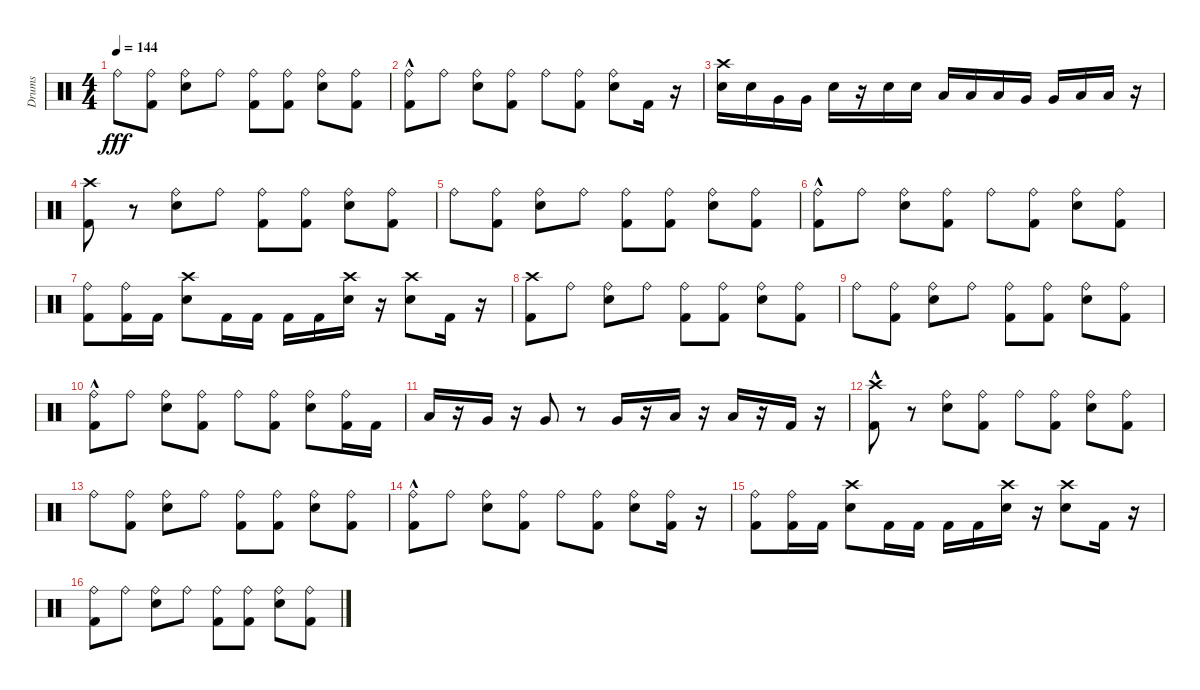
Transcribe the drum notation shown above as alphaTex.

\track ("Drums" "Drums") {instrument percussion}
\staff {score}
\articulation defaults
\ts (4 4)
\tempo 144
\clef neutral
\ks c "Ride (bell)".8{dy fff}
("Ride (bell)" "Kick (hit) 2").8 ("Ride (bell)" "Snare (hit) 2").8 "Ride (bell)".8 ("Ride (bell)" "Kick (hit) 2").8 ("Ride (bell)" "Kick (hit) 2").8 ("Ride (bell)" "Snare (hit) 2").8 ("Ride (bell)" "Kick (hit) 2").8 |
("Kick (hit) 2"{hac} "Ride (bell)").8 "Ride (bell)".8 ("Snare (hit) 2" "Ride (bell)").8 ("Kick (hit) 2" "Ride (bell)").8 "Ride (bell)".8 ("Kick (hit) 2" "Ride (bell)").8 ("Snare (hit) 2" "Ride (bell)").8 "Kick (hit) 2".16 r.16 |
("Snare (hit) 2" "Crash high (hit)").16 "Snare (hit) 2".16 "Very Low Tom (hit)".16 "Very Low Tom (hit)".16 "Snare (hit) 2".16 r.16 "Snare (hit) 2".16 "Snare (hit) 2".16 "Low Tom (hit)".16 "Low Tom (hit)".16 "Low Tom (hit)".16 "Very Low Tom (hit)".16 "Very Low Tom (hit)".16 "Low Floor Tom (hit)".16 "Low Floor Tom (hit)".16 r.16 |
("Kick (hit) 2" "Crash high (hit)").8 r.8 ("Ride (bell)" "Snare (hit) 2").8 "Ride (bell)".8 ("Ride (bell)" "Kick (hit) 2").8 ("Ride (bell)" "Kick (hit) 2").8 ("Ride (bell)" "Snare (hit) 2").8 ("Ride (bell)" "Kick (hit) 2").8 |
"Ride (bell)".8 ("Ride (bell)" "Kick (hit) 2").8 ("Ride (bell)" "Snare (hit) 2").8 "Ride (bell)".8 ("Ride (bell)" "Kick (hit) 2").8 ("Ride (bell)" "Kick (hit) 2").8 ("Ride (bell)" "Snare (hit) 2").8 ("Ride (bell)" "Kick (hit) 2").8 |
("Ride (bell)" "Kick (hit) 2"{hac}).8 "Ride (bell)".8 ("Ride (bell)" "Snare (hit) 2").8 ("Ride (bell)" "Kick (hit) 2").8 "Ride (bell)".8 ("Ride (bell)" "Kick (hit) 2").8 ("Ride (bell)" "Snare (hit) 2").8 ("Ride (bell)" "Kick (hit) 2").8 |
("Ride (bell)" "Kick (hit) 2").8 ("Ride (bell)" "Kick (hit) 2").16 "Kick (hit) 2".16 ("Crash high (hit)" "Snare (hit) 2").8 "Kick (hit) 2".16 "Kick (hit) 2".16 "Kick (hit) 2".16 "Kick (hit) 2".16 ("Crash high (hit)" "Snare (hit) 2").16 r.16 ("Crash high (hit)" "Snare (hit) 2").8 "Kick (hit) 2".16 r.16 |
("Kick (hit) 2" "Crash high (hit)").8 "Ride (bell)".8 ("Ride (bell)" "Snare (hit) 2").8 "Ride (bell)".8 ("Ride (bell)" "Kick (hit) 2").8 ("Ride (bell)" "Kick (hit) 2").8 ("Ride (bell)" "Snare (hit) 2").8 ("Ride (bell)" "Kick (hit) 2").8 |
"Ride (bell)".8 ("Ride (bell)" "Kick (hit) 2").8 ("Ride (bell)" "Snare (hit) 2").8 "Ride (bell)".8 ("Ride (bell)" "Kick (hit) 2").8 ("Ride (bell)" "Kick (hit) 2").8 ("Ride (bell)" "Snare (hit) 2").8 ("Ride (bell)" "Kick (hit) 2").8 |
("Kick (hit) 2"{hac} "Ride (bell)").8 "Ride (bell)".8 ("Snare (hit) 2" "Ride (bell)").8 ("Kick (hit) 2" "Ride (bell)").8 "Ride (bell)".8 ("Kick (hit) 2" "Ride (bell)").8 ("Snare (hit) 2" "Ride (bell)").8 ("Kick (hit) 2" "Ride (bell)").16 "Kick (hit) 2".16 |
"Low Tom (hit)".16 r.16 "Very Low Tom (hit)".16 r.16 "Very Low Tom (hit)".8 r.8 "Very Low Tom (hit)".16 r.16 "Low Floor Tom (hit)".16 r.16 "Low Floor Tom (hit)".16 r.16 "Kick (hit) 2".16 r.16 |
("Kick (hit) 2"{hac} "Crash high (hit)").8 r.8 ("Ride (bell)" "Snare (hit) 2").8 ("Ride (bell)" "Kick (hit) 2").8 "Ride (bell)".8 ("Ride (bell)" "Kick (hit) 2").8 ("Ride (bell)" "Snare (hit) 2").8 ("Ride (bell)" "Kick (hit) 2").8 |
"Ride (bell)".8 ("Ride (bell)" "Kick (hit) 2").8 ("Ride (bell)" "Snare (hit) 2").8 "Ride (bell)".8 ("Ride (bell)" "Kick (hit) 2").8 ("Ride (bell)" "Kick (hit) 2").8 ("Ride (bell)" "Snare (hit) 2").8 ("Ride (bell)" "Kick (hit) 2").8 |
("Ride (bell)" "Kick (hit) 2"{hac}).8 "Ride (bell)".8 ("Ride (bell)" "Snare (hit) 2").8 ("Ride (bell)" "Kick (hit) 2").8 "Ride (bell)".8 ("Ride (bell)" "Kick (hit) 2").8 ("Ride (bell)" "Snare (hit) 2").8 ("Kick (hit) 2" "Ride (bell)").16 r.16 |
("Kick (hit) 2" "Ride (bell)").8 ("Ride (bell)" "Kick (hit) 2").16 "Kick (hit) 2".16 ("Crash high (hit)" "Snare (hit) 2").8 "Kick (hit) 2".16 "Kick (hit) 2".16 "Kick (hit) 2".16 "Kick (hit) 2".16 ("Crash high (hit)" "Snare (hit) 2").16 r.16 ("Crash high (hit)" "Snare (hit) 2").8 "Kick (hit) 2".16 r.16 |
("Ride (bell)" "Kick (hit) 2").8 "Ride (bell)".8 ("Ride (bell)" "Snare (hit) 2").8 "Ride (bell)".8 ("Ride (bell)" "Kick (hit) 2").8 ("Ride (bell)" "Kick (hit) 2").8 ("Ride (bell)" "Snare (hit) 2").8 ("Ride (bell)" "Kick (hit) 2").8
